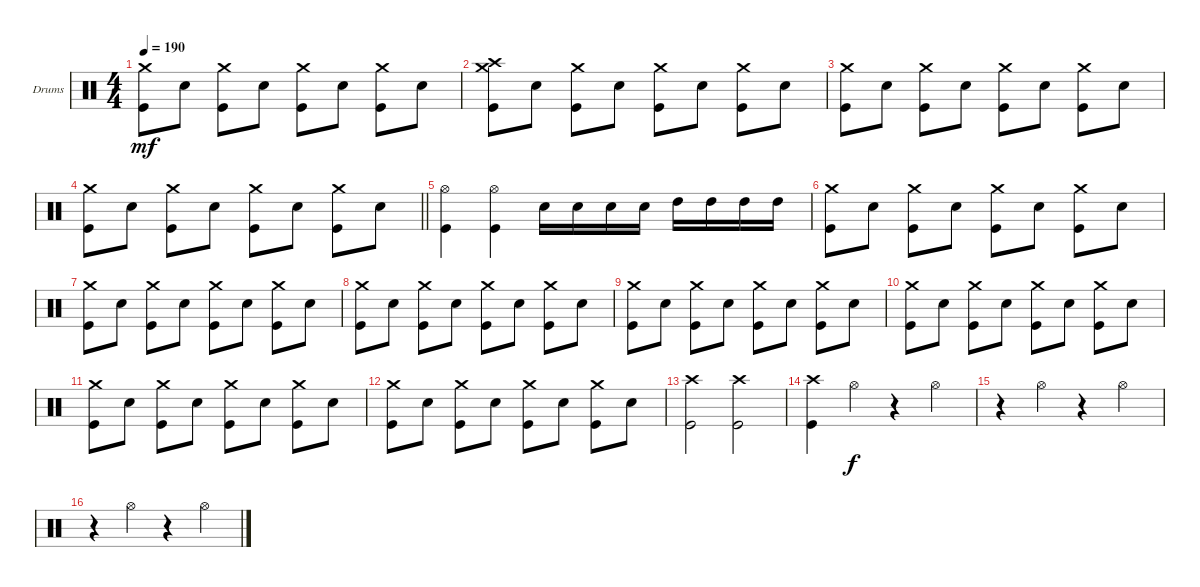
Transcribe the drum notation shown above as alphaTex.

\bracketExtendMode groupsimilarinstruments
\firstSystemTrackNameOrientation horizontal
\otherSystemsTrackNameOrientation horizontal
\track ("Drumkit" "Drums") {instrument percussion}
\staff {score}
\articulation defaults
\ts (4 4)
\tempo 190
\clef neutral
\scale
0.333333
\ks c
("Crash medium (hit)" "Kick (hit)").8{dy mf} "Snare (hit) 2".8 ("Crash medium (hit)" "Kick (hit)").8 "Snare (hit) 2".8 ("Crash medium (hit)" "Kick (hit)").8 "Snare (hit) 2".8 ("Crash medium (hit)" "Kick (hit)").8 "Snare (hit) 2".8 |
\scale
0.333333 ("Crash medium (hit)" "Kick (hit)" "Crash high (hit)").8 "Snare (hit) 2".8 ("Crash medium (hit)" "Kick (hit)").8 "Snare (hit) 2".8 ("Crash medium (hit)" "Kick (hit)").8 "Snare (hit) 2".8 ("Crash medium (hit)" "Kick (hit)").8 "Snare (hit) 2".8 |
\scale
0.333333 ("Crash medium (hit)" "Kick (hit)").8 "Snare (hit) 2".8 ("Crash medium (hit)" "Kick (hit)").8 "Snare (hit) 2".8 ("Crash medium (hit)" "Kick (hit)").8 "Snare (hit) 2".8 ("Crash medium (hit)" "Kick (hit)").8 "Snare (hit) 2".8 |
\scale
0.333333
\barLineRight lightlight
("Crash medium (hit)" "Kick (hit)").8 "Snare (hit) 2".8 ("Crash medium (hit)" "Kick (hit)").8 "Snare (hit) 2".8 ("Crash medium (hit)" "Kick (hit)").8 "Snare (hit) 2".8 ("Crash medium (hit)" "Kick (hit)").8 "Snare (hit) 2".8 |
\scale
0.333333 ("Kick (hit)" "Hi-Hat (open)").4 ("Kick (hit)" "Hi-Hat (open)").4 "Snare (hit) 2".16 "Snare (hit) 2".16 "Snare (hit) 2".16 "Snare (hit) 2".16 "High Tom (hit)".16 "High Tom (hit)".16 "High Tom (hit)".16 "High Tom (hit)".16 |
\scale
0.333333 ("Crash medium (hit)" "Kick (hit)").8 "Snare (hit) 2".8 ("Crash medium (hit)" "Kick (hit)").8 "Snare (hit) 2".8 ("Crash medium (hit)" "Kick (hit)").8 "Snare (hit) 2".8 ("Crash medium (hit)" "Kick (hit)").8 "Snare (hit) 2".8 |
\scale
0.333333 ("Crash medium (hit)" "Kick (hit)").8 "Snare (hit) 2".8 ("Crash medium (hit)" "Kick (hit)").8 "Snare (hit) 2".8 ("Crash medium (hit)" "Kick (hit)").8 "Snare (hit) 2".8 ("Crash medium (hit)" "Kick (hit)").8 "Snare (hit) 2".8 |
\scale
0.333333 ("Crash medium (hit)" "Kick (hit)").8 "Snare (hit) 2".8 ("Crash medium (hit)" "Kick (hit)").8 "Snare (hit) 2".8 ("Crash medium (hit)" "Kick (hit)").8 "Snare (hit) 2".8 ("Crash medium (hit)" "Kick (hit)").8 "Snare (hit) 2".8 |
\scale
0.333333 ("Crash medium (hit)" "Kick (hit)").8 "Snare (hit) 2".8 ("Crash medium (hit)" "Kick (hit)").8 "Snare (hit) 2".8 ("Crash medium (hit)" "Kick (hit)").8 "Snare (hit) 2".8 ("Crash medium (hit)" "Kick (hit)").8 "Snare (hit) 2".8 |
\scale
0.333333 ("Crash medium (hit)" "Kick (hit)").8 "Snare (hit) 2".8 ("Crash medium (hit)" "Kick (hit)").8 "Snare (hit) 2".8 ("Crash medium (hit)" "Kick (hit)").8 "Snare (hit) 2".8 ("Crash medium (hit)" "Kick (hit)").8 "Snare (hit) 2".8 |
\scale
0.333333 ("Crash medium (hit)" "Kick (hit)").8 "Snare (hit) 2".8 ("Crash medium (hit)" "Kick (hit)").8 "Snare (hit) 2".8 ("Crash medium (hit)" "Kick (hit)").8 "Snare (hit) 2".8 ("Crash medium (hit)" "Kick (hit)").8 "Snare (hit) 2".8 |
\scale
0.333333 ("Crash medium (hit)" "Kick (hit)").8 "Snare (hit) 2".8 ("Crash medium (hit)" "Kick (hit)").8 "Snare (hit) 2".8 ("Crash medium (hit)" "Kick (hit)").8 "Snare (hit) 2".8 ("Crash medium (hit)" "Kick (hit)").8 "Snare (hit) 2".8 |
\scale
0.333333 ("Crash high (hit)" "Kick (hit)").2 ("Crash high (hit)" "Kick (hit)").2 |
\scale
0.333333 ("Kick (hit)" "Crash high (hit)").4 "Hi-Hat (open)".4{dy f} r.4 "Hi-Hat (open)".4 |
\scale
0.333333 r.4 "Hi-Hat (open)".4 r.4 "Hi-Hat (open)".4 |
\scale
0.333333 r.4 "Hi-Hat (open)".4 r.4 "Hi-Hat (open)".4
